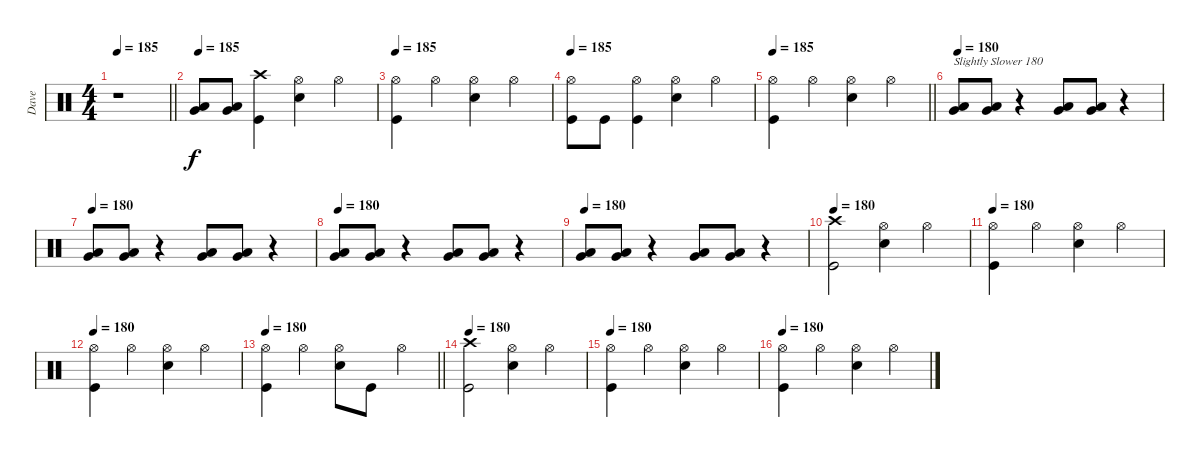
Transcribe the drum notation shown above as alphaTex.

\track ("Dave" "Dave") {instrument percussion}
\staff {score}
\articulation defaults
\ts (4 4)
\tempo 185
\clef neutral
\barLineRight lightlight
\ks c
r.1{dy f} |
\tempo 185
("Very Low Tom (hit)" "Low Floor Tom (hit)").8 ("Very Low Tom (hit)" "Low Floor Tom (hit)").8 ("Crash high (hit)" "Kick (hit)").4 ("Hi-Hat (open)" "Snare (hit) 2").4 "Hi-Hat (open)".4 |
\tempo 185
("Hi-Hat (open)" "Kick (hit)").4 "Hi-Hat (open)".4 ("Hi-Hat (open)" "Snare (hit) 2").4 "Hi-Hat (open)".4 |
\tempo 185
("Hi-Hat (open)" "Kick (hit)").8 "Kick (hit)".8 ("Hi-Hat (open)" "Kick (hit)").4 ("Hi-Hat (open)" "Snare (hit) 2").4 "Hi-Hat (open)".4 |
\tempo 185
\barLineRight lightlight
("Hi-Hat (open)" "Kick (hit)").4 "Hi-Hat (open)".4 ("Hi-Hat (open)" "Snare (hit) 2").4 "Hi-Hat (open)".4 |
\tempo 180
("Very Low Tom (hit)" "Low Floor Tom (hit)").8{txt "Slightly Slower 180"} ("Very Low Tom (hit)" "Low Floor Tom (hit)").8 r.4 ("Low Floor Tom (hit)" "Very Low Tom (hit)").8 ("Low Floor Tom (hit)" "Very Low Tom (hit)").8 r.4 |
\tempo 180
("Very Low Tom (hit)" "Low Floor Tom (hit)").8 ("Very Low Tom (hit)" "Low Floor Tom (hit)").8 r.4 ("Low Floor Tom (hit)" "Very Low Tom (hit)").8 ("Low Floor Tom (hit)" "Very Low Tom (hit)").8 r.4 |
\tempo 180
("Very Low Tom (hit)" "Low Floor Tom (hit)").8 ("Very Low Tom (hit)" "Low Floor Tom (hit)").8 r.4 ("Low Floor Tom (hit)" "Very Low Tom (hit)").8 ("Low Floor Tom (hit)" "Very Low Tom (hit)").8 r.4 |
\tempo 180
("Very Low Tom (hit)" "Low Floor Tom (hit)").8 ("Very Low Tom (hit)" "Low Floor Tom (hit)").8 r.4 ("Low Floor Tom (hit)" "Very Low Tom (hit)").8 ("Low Floor Tom (hit)" "Very Low Tom (hit)").8 r.4 |
\tempo 180
("Crash high (hit)" "Kick (hit)").2 ("Hi-Hat (open)" "Snare (hit) 2").4 "Hi-Hat (open)".4 |
\tempo 180
("Hi-Hat (open)" "Kick (hit)").4 "Hi-Hat (open)".4 ("Hi-Hat (open)" "Snare (hit) 2").4 "Hi-Hat (open)".4 |
\tempo 180
("Hi-Hat (open)" "Kick (hit)").4 "Hi-Hat (open)".4 ("Hi-Hat (open)" "Snare (hit) 2").4 "Hi-Hat (open)".4 |
\tempo 180
\barLineRight lightlight
("Hi-Hat (open)" "Kick (hit)").4 "Hi-Hat (open)".4 ("Hi-Hat (open)" "Snare (hit) 2").8 "Kick (hit)".8 "Hi-Hat (open)".4 |
\tempo 180
("Crash high (hit)" "Kick (hit)").2 ("Hi-Hat (open)" "Snare (hit) 2").4 "Hi-Hat (open)".4 |
\tempo 180
("Hi-Hat (open)" "Kick (hit)").4 "Hi-Hat (open)".4 ("Hi-Hat (open)" "Snare (hit) 2").4 "Hi-Hat (open)".4 |
\tempo 180
("Hi-Hat (open)" "Kick (hit)").4 "Hi-Hat (open)".4 ("Hi-Hat (open)" "Snare (hit) 2").4 "Hi-Hat (open)".4
